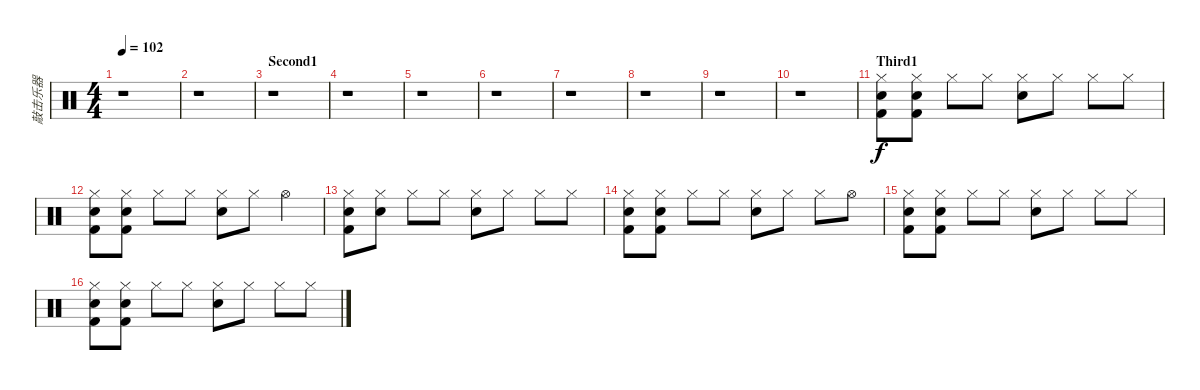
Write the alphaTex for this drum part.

\track ("敲击乐器" "敲击乐器") {instrument percussion}
\staff {score}
\articulation defaults
\ts (4 4)
\tempo 102
\clef neutral
\ks c
r.1{dy f} |
r.1 |
\section ("" "Second1")
r.1 |
r.1 |
r.1 |
r.1 |
r.1 |
r.1 |
r.1 |
r.1 |
\section ("" "Third1")
("Hi-Hat (closed)" "Kick (hit) 2" "Snare (hit)").8 ("Hi-Hat (closed)" "Kick (hit) 2" "Snare (hit)").8 "Hi-Hat (closed)".8 "Hi-Hat (closed)".8 ("Hi-Hat (closed)" "Metronome (bell)").8 "Hi-Hat (closed)".8 "Hi-Hat (closed)".8 "Hi-Hat (closed)".8 |
("Hi-Hat (closed)" "Kick (hit) 2" "Snare (hit)").8 ("Hi-Hat (closed)" "Kick (hit) 2" "Snare (hit)").8 "Hi-Hat (closed)".8 "Hi-Hat (closed)".8 ("Hi-Hat (closed)" "Metronome (bell)").8 "Hi-Hat (closed)".8 "Hi-Hat (open)".4 |
("Hi-Hat (closed)" "Kick (hit) 2" "Snare (hit)").8 ("Hi-Hat (closed)" "Snare (hit)").8 "Hi-Hat (closed)".8 "Hi-Hat (closed)".8 ("Hi-Hat (closed)" "Metronome (bell)").8 "Hi-Hat (closed)".8 "Hi-Hat (closed)".8 "Hi-Hat (closed)".8 |
("Hi-Hat (closed)" "Kick (hit) 2" "Snare (hit)").8 ("Hi-Hat (closed)" "Kick (hit) 2" "Snare (hit)").8 "Hi-Hat (closed)".8 "Hi-Hat (closed)".8 ("Hi-Hat (closed)" "Metronome (bell)").8 "Hi-Hat (closed)".8 "Hi-Hat (closed)".8 "Hi-Hat (open)".8 |
("Hi-Hat (closed)" "Kick (hit) 2" "Snare (hit)").8 ("Hi-Hat (closed)" "Kick (hit) 2" "Snare (hit)").8 "Hi-Hat (closed)".8 "Hi-Hat (closed)".8 ("Hi-Hat (closed)" "Metronome (bell)").8 "Hi-Hat (closed)".8 "Hi-Hat (closed)".8 "Hi-Hat (closed)".8 |
("Hi-Hat (closed)" "Kick (hit) 2" "Snare (hit)").8 ("Hi-Hat (closed)" "Kick (hit) 2" "Snare (hit)").8 "Hi-Hat (closed)".8 "Hi-Hat (closed)".8 ("Hi-Hat (closed)" "Metronome (bell)").8 "Hi-Hat (closed)".8 "Hi-Hat (closed)".8 "Hi-Hat (closed)".8
